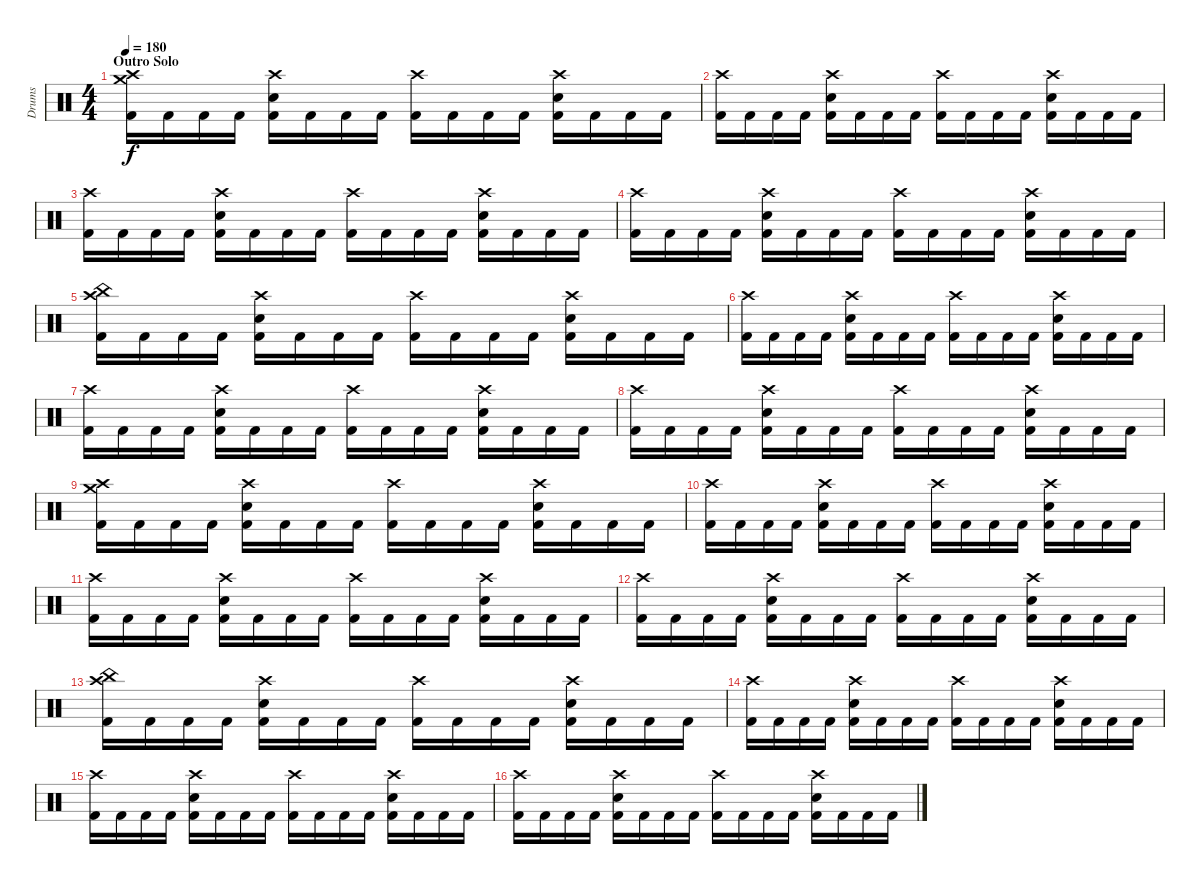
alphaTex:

\track ("Drums" "Drums") {instrument percussion}
\staff {score}
\articulation defaults
\ts (4 4)
\section ("" "Outro Solo")
\tempo 180
\clef neutral
\ks c
("Crash high (hit)" "Crash medium (hit)" "Kick (hit) 2").16{dy f volume 16} "Kick (hit) 2".16 "Kick (hit) 2".16 "Kick (hit) 2".16 ("Crash high (hit)" "Electric Snare (hit)" "Kick (hit) 2").16 "Kick (hit) 2".16 "Kick (hit) 2".16 "Kick (hit) 2".16 ("Crash high (hit)" "Kick (hit) 2").16 "Kick (hit) 2".16 "Kick (hit) 2".16 "Kick (hit) 2".16 ("Crash high (hit)" "Electric Snare (hit)" "Kick (hit) 2").16 "Kick (hit) 2".16 "Kick (hit) 2".16 "Kick (hit) 2".16 |
("Crash high (hit)" "Kick (hit) 2").16 "Kick (hit) 2".16 "Kick (hit) 2".16 "Kick (hit) 2".16 ("Crash high (hit)" "Electric Snare (hit)" "Kick (hit) 2").16 "Kick (hit) 2".16 "Kick (hit) 2".16 "Kick (hit) 2".16 ("Crash high (hit)" "Kick (hit) 2").16 "Kick (hit) 2".16 "Kick (hit) 2".16 "Kick (hit) 2".16 ("Crash high (hit)" "Electric Snare (hit)" "Kick (hit) 2").16 "Kick (hit) 2".16 "Kick (hit) 2".16 "Kick (hit) 2".16 |
("Crash high (hit)" "Kick (hit) 2").16 "Kick (hit) 2".16 "Kick (hit) 2".16 "Kick (hit) 2".16 ("Crash high (hit)" "Electric Snare (hit)" "Kick (hit) 2").16 "Kick (hit) 2".16 "Kick (hit) 2".16 "Kick (hit) 2".16 ("Crash high (hit)" "Kick (hit) 2").16 "Kick (hit) 2".16 "Kick (hit) 2".16 "Kick (hit) 2".16 ("Crash high (hit)" "Electric Snare (hit)" "Kick (hit) 2").16 "Kick (hit) 2".16 "Kick (hit) 2".16 "Kick (hit) 2".16 |
("Crash high (hit)" "Kick (hit) 2").16 "Kick (hit) 2".16 "Kick (hit) 2".16 "Kick (hit) 2".16 ("Crash high (hit)" "Electric Snare (hit)" "Kick (hit) 2").16 "Kick (hit) 2".16 "Kick (hit) 2".16 "Kick (hit) 2".16 ("Crash high (hit)" "Kick (hit) 2").16 "Kick (hit) 2".16 "Kick (hit) 2".16 "Kick (hit) 2".16 ("Crash high (hit)" "Electric Snare (hit)" "Kick (hit) 2").16 "Kick (hit) 2".16 "Kick (hit) 2".16 "Kick (hit) 2".16 |
("Crash high (hit)" "China (hit)" "Kick (hit) 2").16 "Kick (hit) 2".16 "Kick (hit) 2".16 "Kick (hit) 2".16 ("Crash high (hit)" "Electric Snare (hit)" "Kick (hit) 2").16 "Kick (hit) 2".16 "Kick (hit) 2".16 "Kick (hit) 2".16 ("Crash high (hit)" "Kick (hit) 2").16 "Kick (hit) 2".16 "Kick (hit) 2".16 "Kick (hit) 2".16 ("Crash high (hit)" "Electric Snare (hit)" "Kick (hit) 2").16 "Kick (hit) 2".16 "Kick (hit) 2".16 "Kick (hit) 2".16 |
("Crash high (hit)" "Kick (hit) 2").16 "Kick (hit) 2".16 "Kick (hit) 2".16 "Kick (hit) 2".16 ("Crash high (hit)" "Electric Snare (hit)" "Kick (hit) 2").16 "Kick (hit) 2".16 "Kick (hit) 2".16 "Kick (hit) 2".16 ("Crash high (hit)" "Kick (hit) 2").16 "Kick (hit) 2".16 "Kick (hit) 2".16 "Kick (hit) 2".16 ("Crash high (hit)" "Electric Snare (hit)" "Kick (hit) 2").16 "Kick (hit) 2".16 "Kick (hit) 2".16 "Kick (hit) 2".16 |
("Crash high (hit)" "Kick (hit) 2").16 "Kick (hit) 2".16 "Kick (hit) 2".16 "Kick (hit) 2".16 ("Crash high (hit)" "Electric Snare (hit)" "Kick (hit) 2").16 "Kick (hit) 2".16 "Kick (hit) 2".16 "Kick (hit) 2".16 ("Crash high (hit)" "Kick (hit) 2").16 "Kick (hit) 2".16 "Kick (hit) 2".16 "Kick (hit) 2".16 ("Crash high (hit)" "Electric Snare (hit)" "Kick (hit) 2").16 "Kick (hit) 2".16 "Kick (hit) 2".16 "Kick (hit) 2".16 |
("Crash high (hit)" "Kick (hit) 2").16 "Kick (hit) 2".16 "Kick (hit) 2".16 "Kick (hit) 2".16 ("Crash high (hit)" "Electric Snare (hit)" "Kick (hit) 2").16 "Kick (hit) 2".16 "Kick (hit) 2".16 "Kick (hit) 2".16 ("Crash high (hit)" "Kick (hit) 2").16 "Kick (hit) 2".16 "Kick (hit) 2".16 "Kick (hit) 2".16 ("Crash high (hit)" "Electric Snare (hit)" "Kick (hit) 2").16 "Kick (hit) 2".16 "Kick (hit) 2".16 "Kick (hit) 2".16 |
("Crash high (hit)" "Crash medium (hit)" "Kick (hit) 2").16 "Kick (hit) 2".16 "Kick (hit) 2".16 "Kick (hit) 2".16 ("Crash high (hit)" "Electric Snare (hit)" "Kick (hit) 2").16 "Kick (hit) 2".16 "Kick (hit) 2".16 "Kick (hit) 2".16 ("Crash high (hit)" "Kick (hit) 2").16 "Kick (hit) 2".16 "Kick (hit) 2".16 "Kick (hit) 2".16 ("Crash high (hit)" "Electric Snare (hit)" "Kick (hit) 2").16 "Kick (hit) 2".16 "Kick (hit) 2".16 "Kick (hit) 2".16 |
("Crash high (hit)" "Kick (hit) 2").16 "Kick (hit) 2".16 "Kick (hit) 2".16 "Kick (hit) 2".16 ("Crash high (hit)" "Electric Snare (hit)" "Kick (hit) 2").16 "Kick (hit) 2".16 "Kick (hit) 2".16 "Kick (hit) 2".16 ("Crash high (hit)" "Kick (hit) 2").16 "Kick (hit) 2".16 "Kick (hit) 2".16 "Kick (hit) 2".16 ("Crash high (hit)" "Electric Snare (hit)" "Kick (hit) 2").16 "Kick (hit) 2".16 "Kick (hit) 2".16 "Kick (hit) 2".16 |
("Crash high (hit)" "Kick (hit) 2").16 "Kick (hit) 2".16 "Kick (hit) 2".16 "Kick (hit) 2".16 ("Crash high (hit)" "Electric Snare (hit)" "Kick (hit) 2").16 "Kick (hit) 2".16 "Kick (hit) 2".16 "Kick (hit) 2".16 ("Crash high (hit)" "Kick (hit) 2").16 "Kick (hit) 2".16 "Kick (hit) 2".16 "Kick (hit) 2".16 ("Crash high (hit)" "Electric Snare (hit)" "Kick (hit) 2").16 "Kick (hit) 2".16 "Kick (hit) 2".16 "Kick (hit) 2".16 |
("Crash high (hit)" "Kick (hit) 2").16 "Kick (hit) 2".16 "Kick (hit) 2".16 "Kick (hit) 2".16 ("Crash high (hit)" "Electric Snare (hit)" "Kick (hit) 2").16 "Kick (hit) 2".16 "Kick (hit) 2".16 "Kick (hit) 2".16 ("Crash high (hit)" "Kick (hit) 2").16 "Kick (hit) 2".16 "Kick (hit) 2".16 "Kick (hit) 2".16 ("Crash high (hit)" "Electric Snare (hit)" "Kick (hit) 2").16 "Kick (hit) 2".16 "Kick (hit) 2".16 "Kick (hit) 2".16 |
("Crash high (hit)" "China (hit)" "Kick (hit) 2").16 "Kick (hit) 2".16 "Kick (hit) 2".16 "Kick (hit) 2".16 ("Crash high (hit)" "Electric Snare (hit)" "Kick (hit) 2").16 "Kick (hit) 2".16 "Kick (hit) 2".16 "Kick (hit) 2".16 ("Crash high (hit)" "Kick (hit) 2").16 "Kick (hit) 2".16 "Kick (hit) 2".16 "Kick (hit) 2".16 ("Crash high (hit)" "Electric Snare (hit)" "Kick (hit) 2").16 "Kick (hit) 2".16 "Kick (hit) 2".16 "Kick (hit) 2".16 |
("Crash high (hit)" "Kick (hit) 2").16 "Kick (hit) 2".16 "Kick (hit) 2".16 "Kick (hit) 2".16 ("Crash high (hit)" "Electric Snare (hit)" "Kick (hit) 2").16 "Kick (hit) 2".16 "Kick (hit) 2".16 "Kick (hit) 2".16 ("Crash high (hit)" "Kick (hit) 2").16 "Kick (hit) 2".16 "Kick (hit) 2".16 "Kick (hit) 2".16 ("Crash high (hit)" "Electric Snare (hit)" "Kick (hit) 2").16 "Kick (hit) 2".16 "Kick (hit) 2".16 "Kick (hit) 2".16 |
("Crash high (hit)" "Kick (hit) 2").16 "Kick (hit) 2".16 "Kick (hit) 2".16 "Kick (hit) 2".16 ("Crash high (hit)" "Electric Snare (hit)" "Kick (hit) 2").16 "Kick (hit) 2".16 "Kick (hit) 2".16 "Kick (hit) 2".16 ("Crash high (hit)" "Kick (hit) 2").16 "Kick (hit) 2".16 "Kick (hit) 2".16 "Kick (hit) 2".16 ("Crash high (hit)" "Electric Snare (hit)" "Kick (hit) 2").16 "Kick (hit) 2".16 "Kick (hit) 2".16 "Kick (hit) 2".16 |
("Crash high (hit)" "Kick (hit) 2").16 "Kick (hit) 2".16 "Kick (hit) 2".16 "Kick (hit) 2".16 ("Crash high (hit)" "Electric Snare (hit)" "Kick (hit) 2").16 "Kick (hit) 2".16 "Kick (hit) 2".16 "Kick (hit) 2".16 ("Crash high (hit)" "Kick (hit) 2").16 "Kick (hit) 2".16 "Kick (hit) 2".16 "Kick (hit) 2".16 ("Crash high (hit)" "Electric Snare (hit)" "Kick (hit) 2").16 "Kick (hit) 2".16 "Kick (hit) 2".16 "Kick (hit) 2".16
